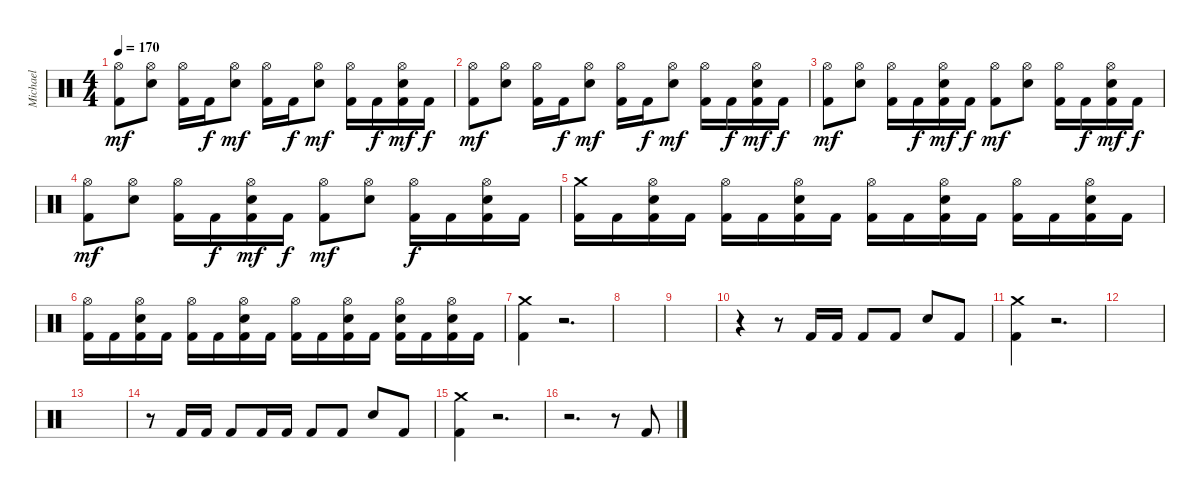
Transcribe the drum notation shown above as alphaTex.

\track ("Michael" "Michael") {instrument percussion}
\staff {score}
\articulation defaults
\ts (4 4)
\tempo 170
\clef neutral
\ks c
("Hi-Hat (open)" "Kick (hit) 2").8{dy mf} ("Hi-Hat (open)" "Electric Snare (hit)").8 ("Hi-Hat (open)" "Kick (hit) 2").16 "Kick (hit) 2".16{dy f} ("Hi-Hat (open)" "Electric Snare (hit)").8{dy mf} ("Hi-Hat (open)" "Kick (hit) 2").16 "Kick (hit) 2".16{dy f} ("Hi-Hat (open)" "Electric Snare (hit)").8{dy mf} ("Hi-Hat (open)" "Kick (hit) 2").16 "Kick (hit) 2".16{dy f} ("Hi-Hat (open)" "Electric Snare (hit)" "Kick (hit) 2").16{dy mf} "Kick (hit) 2".16{dy f} |
("Hi-Hat (open)" "Kick (hit) 2").8{dy mf} ("Hi-Hat (open)" "Electric Snare (hit)").8 ("Hi-Hat (open)" "Kick (hit) 2").16 "Kick (hit) 2".16{dy f} ("Hi-Hat (open)" "Electric Snare (hit)").8{dy mf} ("Hi-Hat (open)" "Kick (hit) 2").16 "Kick (hit) 2".16{dy f} ("Hi-Hat (open)" "Electric Snare (hit)").8{dy mf} ("Hi-Hat (open)" "Kick (hit) 2").16 "Kick (hit) 2".16{dy f} ("Hi-Hat (open)" "Electric Snare (hit)" "Kick (hit) 2").16{dy mf} "Kick (hit) 2".16{dy f} |
("Hi-Hat (open)" "Kick (hit) 2").8{dy mf} ("Hi-Hat (open)" "Electric Snare (hit)").8 ("Hi-Hat (open)" "Kick (hit) 2").16 "Kick (hit) 2".16{dy f} ("Hi-Hat (open)" "Electric Snare (hit)" "Kick (hit) 2").16{dy mf} "Kick (hit) 2".16{dy f} ("Hi-Hat (open)" "Kick (hit) 2").8{dy mf} ("Hi-Hat (open)" "Electric Snare (hit)").8 ("Hi-Hat (open)" "Kick (hit) 2").16 "Kick (hit) 2".16{dy f} ("Hi-Hat (open)" "Electric Snare (hit)" "Kick (hit) 2").16{dy mf} "Kick (hit) 2".16{dy f} |
("Hi-Hat (open)" "Kick (hit) 2").8{dy mf} ("Hi-Hat (open)" "Electric Snare (hit)").8 ("Hi-Hat (open)" "Kick (hit) 2").16 "Kick (hit) 2".16{dy f} ("Hi-Hat (open)" "Electric Snare (hit)" "Kick (hit) 2").16{dy mf} "Kick (hit) 2".16{dy f} ("Hi-Hat (open)" "Kick (hit) 2").8{dy mf} ("Hi-Hat (open)" "Electric Snare (hit)").8 ("Hi-Hat (open)" "Kick (hit) 2").16{dy f} "Kick (hit) 2".16 ("Hi-Hat (open)" "Electric Snare (hit)" "Kick (hit) 2").16 "Kick (hit) 2".16 |
("Crash medium (hit)" "Kick (hit) 2").16 "Kick (hit) 2".16 ("Hi-Hat (open)" "Electric Snare (hit)" "Kick (hit) 2").16 "Kick (hit) 2".16 ("Hi-Hat (open)" "Kick (hit) 2").16 "Kick (hit) 2".16 ("Hi-Hat (open)" "Electric Snare (hit)" "Kick (hit) 2").16 "Kick (hit) 2".16 ("Hi-Hat (open)" "Kick (hit) 2").16 "Kick (hit) 2".16 ("Hi-Hat (open)" "Electric Snare (hit)" "Kick (hit) 2").16 "Kick (hit) 2".16 ("Hi-Hat (open)" "Kick (hit) 2").16 "Kick (hit) 2".16 ("Hi-Hat (open)" "Electric Snare (hit)" "Kick (hit) 2").16 "Kick (hit) 2".16 |
("Hi-Hat (open)" "Kick (hit) 2").16 "Kick (hit) 2".16 ("Hi-Hat (open)" "Electric Snare (hit)" "Kick (hit) 2").16 "Kick (hit) 2".16 ("Hi-Hat (open)" "Kick (hit) 2").16 "Kick (hit) 2".16 ("Hi-Hat (open)" "Electric Snare (hit)" "Kick (hit) 2").16 "Kick (hit) 2".16 ("Hi-Hat (open)" "Kick (hit) 2").16 "Kick (hit) 2".16 ("Hi-Hat (open)" "Electric Snare (hit)" "Kick (hit) 2").16 "Kick (hit) 2".16 ("Hi-Hat (open)" "Electric Snare (hit)" "Kick (hit) 2").16 "Kick (hit) 2".16 ("Hi-Hat (open)" "Electric Snare (hit)" "Kick (hit) 2").16 "Kick (hit) 2".16 |
("Crash medium (hit)" "Kick (hit) 2").4 r.2{d} |
|
|
r.4 r.8 "Kick (hit) 2".16 "Kick (hit) 2".16 "Kick (hit) 2".8 "Kick (hit) 2".8 "Electric Snare (hit)".8 "Kick (hit) 2".8 |
("Crash medium (hit)" "Kick (hit) 2").4 r.2{d} |
|
|
r.8 "Kick (hit) 2".16 "Kick (hit) 2".16 "Kick (hit) 2".8 "Kick (hit) 2".16 "Kick (hit) 2".16 "Kick (hit) 2".8 "Kick (hit) 2".8 "Electric Snare (hit)".8 "Kick (hit) 2".8 |
("Crash medium (hit)" "Kick (hit) 2").4 r.2{d} |
r.2{d} r.8 "Kick (hit) 2".8
